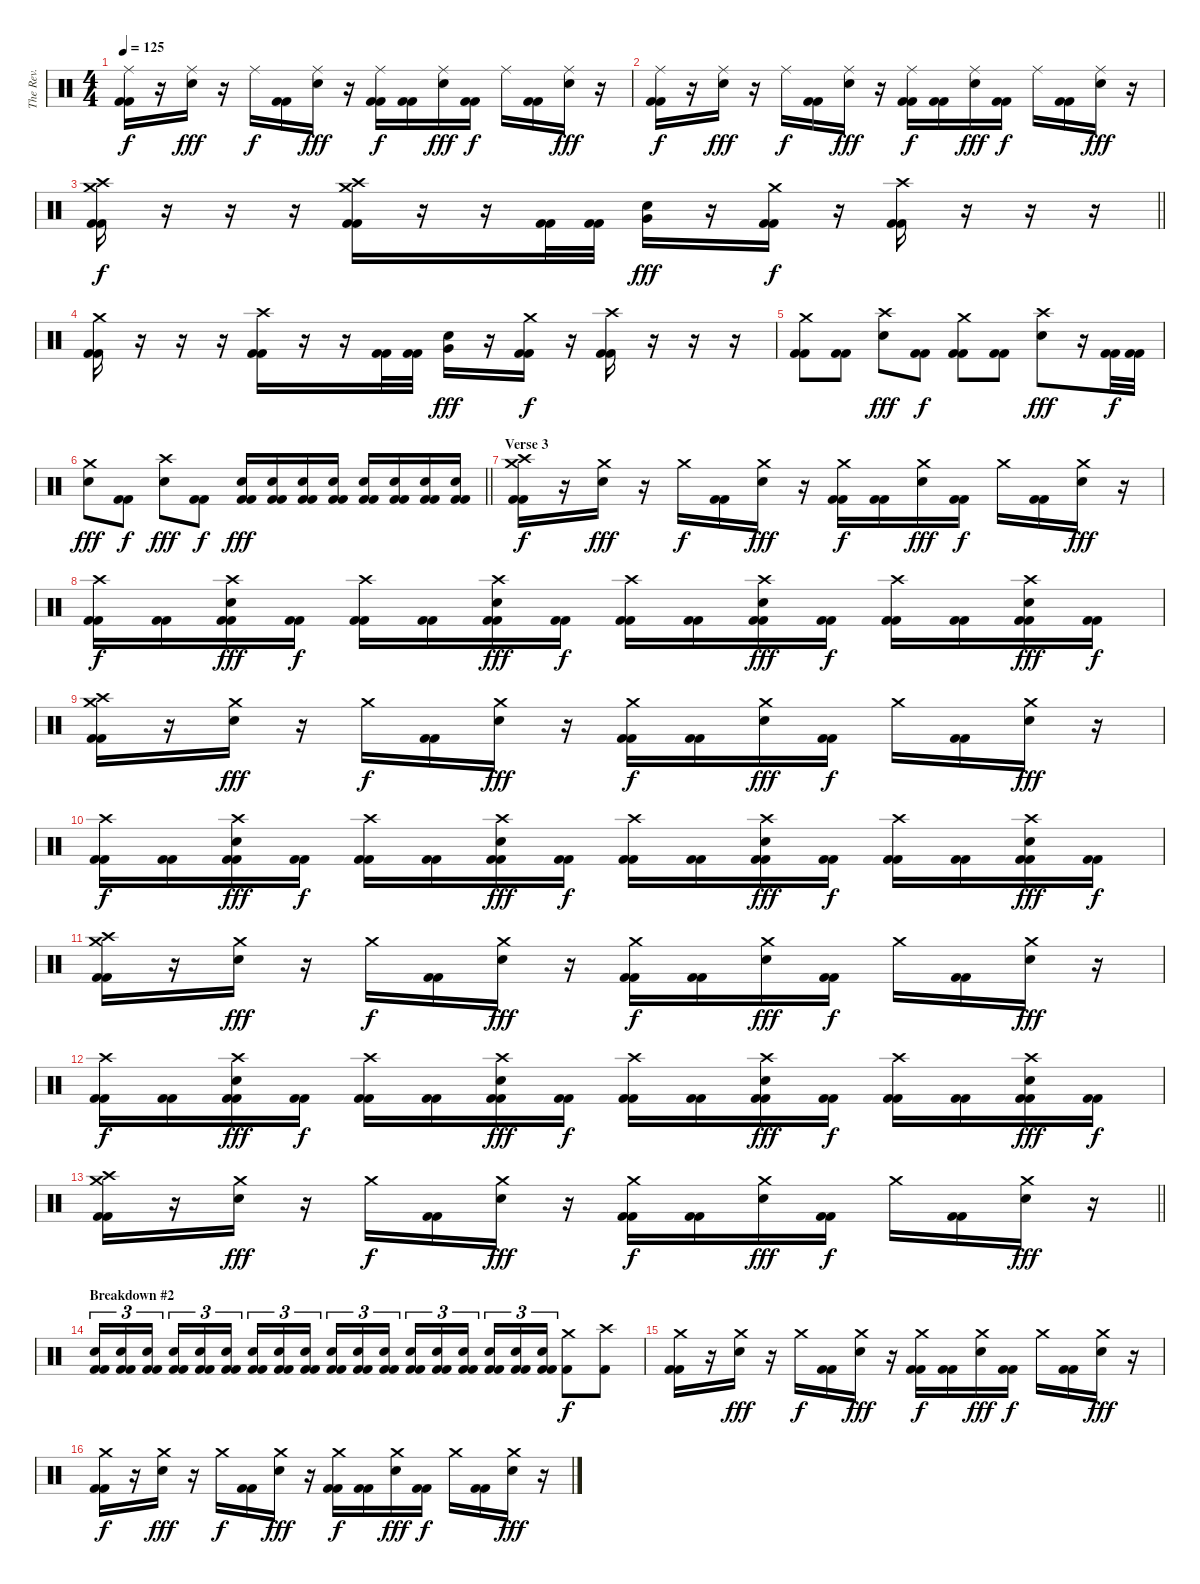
\track ("The Rev." "The Rev.") {instrument percussion}
\staff {score}
\articulation defaults
\ts (4 4)
\tempo 125
\clef neutral
\ks c
("Ride (middle)" "Kick (hit) 2" "Kick (hit) 2").16{dy f} r.16 ("Ride (middle)" "Electric Snare (hit)").16{dy fff} r.16 "Ride (middle)".16{dy f} ("Kick (hit) 2" "Kick (hit) 2").16 ("Ride (middle)" "Electric Snare (hit)").16{dy fff} r.16 ("Ride (middle)" "Kick (hit) 2" "Kick (hit) 2").16{dy f} ("Kick (hit) 2" "Kick (hit) 2").16 ("Ride (middle)" "Electric Snare (hit)").16{dy fff} ("Kick (hit) 2" "Kick (hit) 2").16{dy f} "Ride (middle)".16 ("Kick (hit) 2" "Kick (hit) 2").16 ("Ride (middle)" "Electric Snare (hit)").16{dy fff} r.16 |
("Ride (middle)" "Kick (hit) 2" "Kick (hit) 2").16{dy f} r.16 ("Ride (middle)" "Electric Snare (hit)").16{dy fff} r.16 "Ride (middle)".16{dy f} ("Kick (hit) 2" "Kick (hit) 2").16 ("Ride (middle)" "Electric Snare (hit)").16{dy fff} r.16 ("Ride (middle)" "Kick (hit) 2" "Kick (hit) 2").16{dy f} ("Kick (hit) 2" "Kick (hit) 2").16 ("Ride (middle)" "Electric Snare (hit)").16{dy fff} ("Kick (hit) 2" "Kick (hit) 2").16{dy f} "Ride (middle)".16 ("Kick (hit) 2" "Kick (hit) 2").16 ("Ride (middle)" "Electric Snare (hit)").16{dy fff} r.16 |
\barLineRight lightlight
("Crash high (hit)" "Crash medium (hit)" "Kick (hit) 2" "Kick (hit) 2").16{dy f} r.16 r.16 r.16 ("Crash high (hit)" "Crash medium (hit)" "Kick (hit) 2" "Kick (hit) 2").16 r.16 r.16 ("Kick (hit) 2" "Kick (hit) 2").32 ("Kick (hit) 2" "Kick (hit) 2").32 ("Electric Snare (hit)" "Very Low Tom (hit)").16{dy fff} r.16 ("Crash medium (hit)" "Kick (hit) 2" "Kick (hit) 2").16{dy f} r.16 ("Crash high (hit)" "Kick (hit) 2" "Kick (hit) 2").16 r.16 r.16 r.16 |
("Crash medium (hit)" "Kick (hit) 2" "Kick (hit) 2").16 r.16 r.16 r.16 ("Crash high (hit)" "Kick (hit) 2" "Kick (hit) 2").16 r.16 r.16 ("Kick (hit) 2" "Kick (hit) 2").32 ("Kick (hit) 2" "Kick (hit) 2").32 ("Electric Snare (hit)" "Very Low Tom (hit)").16{dy fff} r.16 ("Crash medium (hit)" "Kick (hit) 2" "Kick (hit) 2").16{dy f} r.16 ("Crash high (hit)" "Kick (hit) 2" "Kick (hit) 2").16 r.16 r.16 r.16 |
("Crash medium (hit)" "Kick (hit) 2" "Kick (hit) 2").8 ("Kick (hit) 2" "Kick (hit) 2").8 ("Crash high (hit)" "Electric Snare (hit)").8{dy fff} ("Kick (hit) 2" "Kick (hit) 2").8{dy f} ("Crash medium (hit)" "Kick (hit) 2" "Kick (hit) 2").8 ("Kick (hit) 2" "Kick (hit) 2").8 ("Crash high (hit)" "Electric Snare (hit)").8{dy fff} r.16 ("Kick (hit) 2" "Kick (hit) 2").32{dy f} ("Kick (hit) 2" "Kick (hit) 2").32 |
\barLineRight lightlight
("Crash medium (hit)" "Electric Snare (hit)").8{dy fff} ("Kick (hit) 2" "Kick (hit) 2").8{dy f} ("Crash high (hit)" "Electric Snare (hit)").8{dy fff} ("Kick (hit) 2" "Kick (hit) 2").8{dy f} ("Electric Snare (hit)" "Kick (hit) 2" "Kick (hit) 2").16{dy fff} ("Electric Snare (hit)" "Kick (hit) 2" "Kick (hit) 2").16 ("Electric Snare (hit)" "Kick (hit) 2" "Kick (hit) 2").16 ("Electric Snare (hit)" "Kick (hit) 2" "Kick (hit) 2").16 ("Electric Snare (hit)" "Kick (hit) 2" "Kick (hit) 2").16 ("Electric Snare (hit)" "Kick (hit) 2" "Kick (hit) 2").16 ("Electric Snare (hit)" "Kick (hit) 2" "Kick (hit) 2").16 ("Electric Snare (hit)" "Kick (hit) 2" "Kick (hit) 2").16 |
\section ("" "Verse 3")
("Crash high (hit)" "Crash medium (hit)" "Kick (hit) 2" "Kick (hit) 2").16{dy f} r.16 ("Crash medium (hit)" "Electric Snare (hit)").16{dy fff} r.16 "Crash medium (hit)".16{dy f} ("Kick (hit) 2" "Kick (hit) 2").16 ("Crash medium (hit)" "Electric Snare (hit)").16{dy fff} r.16 ("Crash medium (hit)" "Kick (hit) 2" "Kick (hit) 2").16{dy f} ("Kick (hit) 2" "Kick (hit) 2").16 ("Crash medium (hit)" "Electric Snare (hit)").16{dy fff} ("Kick (hit) 2" "Kick (hit) 2").16{dy f} "Crash medium (hit)".16 ("Kick (hit) 2" "Kick (hit) 2").16 ("Crash medium (hit)" "Electric Snare (hit)").16{dy fff} r.16 |
("Crash high (hit)" "Kick (hit) 2" "Kick (hit) 2").16{dy f} ("Kick (hit) 2" "Kick (hit) 2").16 ("Crash high (hit)" "Electric Snare (hit)" "Kick (hit) 2" "Kick (hit) 2").16{dy fff} ("Kick (hit) 2" "Kick (hit) 2").16{dy f} ("Crash high (hit)" "Kick (hit) 2" "Kick (hit) 2").16 ("Kick (hit) 2" "Kick (hit) 2").16 ("Crash high (hit)" "Electric Snare (hit)" "Kick (hit) 2" "Kick (hit) 2").16{dy fff} ("Kick (hit) 2" "Kick (hit) 2").16{dy f} ("Crash high (hit)" "Kick (hit) 2" "Kick (hit) 2").16 ("Kick (hit) 2" "Kick (hit) 2").16 ("Crash high (hit)" "Electric Snare (hit)" "Kick (hit) 2" "Kick (hit) 2").16{dy fff} ("Kick (hit) 2" "Kick (hit) 2").16{dy f} ("Crash high (hit)" "Kick (hit) 2" "Kick (hit) 2").16 ("Kick (hit) 2" "Kick (hit) 2").16 ("Crash high (hit)" "Electric Snare (hit)" "Kick (hit) 2" "Kick (hit) 2").16{dy fff} ("Kick (hit) 2" "Kick (hit) 2").16{dy f} |
("Crash high (hit)" "Crash medium (hit)" "Kick (hit) 2" "Kick (hit) 2").16 r.16 ("Crash medium (hit)" "Electric Snare (hit)").16{dy fff} r.16 "Crash medium (hit)".16{dy f} ("Kick (hit) 2" "Kick (hit) 2").16 ("Crash medium (hit)" "Electric Snare (hit)").16{dy fff} r.16 ("Crash medium (hit)" "Kick (hit) 2" "Kick (hit) 2").16{dy f} ("Kick (hit) 2" "Kick (hit) 2").16 ("Crash medium (hit)" "Electric Snare (hit)").16{dy fff} ("Kick (hit) 2" "Kick (hit) 2").16{dy f} "Crash medium (hit)".16 ("Kick (hit) 2" "Kick (hit) 2").16 ("Crash medium (hit)" "Electric Snare (hit)").16{dy fff} r.16 |
("Crash high (hit)" "Kick (hit) 2" "Kick (hit) 2").16{dy f} ("Kick (hit) 2" "Kick (hit) 2").16 ("Crash high (hit)" "Electric Snare (hit)" "Kick (hit) 2" "Kick (hit) 2").16{dy fff} ("Kick (hit) 2" "Kick (hit) 2").16{dy f} ("Crash high (hit)" "Kick (hit) 2" "Kick (hit) 2").16 ("Kick (hit) 2" "Kick (hit) 2").16 ("Crash high (hit)" "Electric Snare (hit)" "Kick (hit) 2" "Kick (hit) 2").16{dy fff} ("Kick (hit) 2" "Kick (hit) 2").16{dy f} ("Crash high (hit)" "Kick (hit) 2" "Kick (hit) 2").16 ("Kick (hit) 2" "Kick (hit) 2").16 ("Crash high (hit)" "Electric Snare (hit)" "Kick (hit) 2" "Kick (hit) 2").16{dy fff} ("Kick (hit) 2" "Kick (hit) 2").16{dy f} ("Crash high (hit)" "Kick (hit) 2" "Kick (hit) 2").16 ("Kick (hit) 2" "Kick (hit) 2").16 ("Crash high (hit)" "Electric Snare (hit)" "Kick (hit) 2" "Kick (hit) 2").16{dy fff} ("Kick (hit) 2" "Kick (hit) 2").16{dy f} |
("Crash high (hit)" "Crash medium (hit)" "Kick (hit) 2" "Kick (hit) 2").16 r.16 ("Crash medium (hit)" "Electric Snare (hit)").16{dy fff} r.16 "Crash medium (hit)".16{dy f} ("Kick (hit) 2" "Kick (hit) 2").16 ("Crash medium (hit)" "Electric Snare (hit)").16{dy fff} r.16 ("Crash medium (hit)" "Kick (hit) 2" "Kick (hit) 2").16{dy f} ("Kick (hit) 2" "Kick (hit) 2").16 ("Crash medium (hit)" "Electric Snare (hit)").16{dy fff} ("Kick (hit) 2" "Kick (hit) 2").16{dy f} "Crash medium (hit)".16 ("Kick (hit) 2" "Kick (hit) 2").16 ("Crash medium (hit)" "Electric Snare (hit)").16{dy fff} r.16 |
("Crash high (hit)" "Kick (hit) 2" "Kick (hit) 2").16{dy f} ("Kick (hit) 2" "Kick (hit) 2").16 ("Crash high (hit)" "Electric Snare (hit)" "Kick (hit) 2" "Kick (hit) 2").16{dy fff} ("Kick (hit) 2" "Kick (hit) 2").16{dy f} ("Crash high (hit)" "Kick (hit) 2" "Kick (hit) 2").16 ("Kick (hit) 2" "Kick (hit) 2").16 ("Crash high (hit)" "Electric Snare (hit)" "Kick (hit) 2" "Kick (hit) 2").16{dy fff} ("Kick (hit) 2" "Kick (hit) 2").16{dy f} ("Crash high (hit)" "Kick (hit) 2" "Kick (hit) 2").16 ("Kick (hit) 2" "Kick (hit) 2").16 ("Crash high (hit)" "Electric Snare (hit)" "Kick (hit) 2" "Kick (hit) 2").16{dy fff} ("Kick (hit) 2" "Kick (hit) 2").16{dy f} ("Crash high (hit)" "Kick (hit) 2" "Kick (hit) 2").16 ("Kick (hit) 2" "Kick (hit) 2").16 ("Crash high (hit)" "Electric Snare (hit)" "Kick (hit) 2" "Kick (hit) 2").16{dy fff} ("Kick (hit) 2" "Kick (hit) 2").16{dy f} |
\barLineRight lightlight
("Crash high (hit)" "Crash medium (hit)" "Kick (hit) 2" "Kick (hit) 2").16 r.16 ("Crash medium (hit)" "Electric Snare (hit)").16{dy fff} r.16 "Crash medium (hit)".16{dy f} ("Kick (hit) 2" "Kick (hit) 2").16 ("Crash medium (hit)" "Electric Snare (hit)").16{dy fff} r.16 ("Crash medium (hit)" "Kick (hit) 2" "Kick (hit) 2").16{dy f} ("Kick (hit) 2" "Kick (hit) 2").16 ("Crash medium (hit)" "Electric Snare (hit)").16{dy fff} ("Kick (hit) 2" "Kick (hit) 2").16{dy f} "Crash medium (hit)".16 ("Kick (hit) 2" "Kick (hit) 2").16 ("Crash medium (hit)" "Electric Snare (hit)").16{dy fff} r.16 |
\section ("" "Breakdown #2")
("Electric Snare (hit)" "Kick (hit) 2" "Kick (hit) 2").16{tu (3 2)} ("Electric Snare (hit)" "Kick (hit) 2" "Kick (hit) 2").16{tu (3 2)} ("Electric Snare (hit)" "Kick (hit) 2" "Kick (hit) 2").16{tu (3 2) beam splitsecondary} ("Electric Snare (hit)" "Kick (hit) 2" "Kick (hit) 2").16{tu (3 2)} ("Electric Snare (hit)" "Kick (hit) 2" "Kick (hit) 2").16{tu (3 2)} ("Electric Snare (hit)" "Kick (hit) 2" "Kick (hit) 2").16{tu (3 2)} ("Electric Snare (hit)" "Kick (hit) 2" "Kick (hit) 2").16{tu (3 2)} ("Electric Snare (hit)" "Kick (hit) 2" "Kick (hit) 2").16{tu (3 2)} ("Electric Snare (hit)" "Kick (hit) 2" "Kick (hit) 2").16{tu (3 2) beam splitsecondary} ("Electric Snare (hit)" "Kick (hit) 2" "Kick (hit) 2").16{tu (3 2)} ("Electric Snare (hit)" "Kick (hit) 2" "Kick (hit) 2").16{tu (3 2)} ("Electric Snare (hit)" "Kick (hit) 2" "Kick (hit) 2").16{tu (3 2)} ("Electric Snare (hit)" "Kick (hit) 2" "Kick (hit) 2").16{tu (3 2)} ("Electric Snare (hit)" "Kick (hit) 2" "Kick (hit) 2").16{tu (3 2)} ("Electric Snare (hit)" "Kick (hit) 2" "Kick (hit) 2").16{tu (3 2) beam splitsecondary} ("Electric Snare (hit)" "Kick (hit) 2" "Kick (hit) 2").16{tu (3 2)} ("Electric Snare (hit)" "Kick (hit) 2" "Kick (hit) 2").16{tu (3 2)} ("Electric Snare (hit)" "Kick (hit) 2" "Kick (hit) 2").16{tu (3 2)} ("Crash medium (hit)" "Kick (hit) 2").8{dy f} ("Crash high (hit)" "Kick (hit) 2").8 |
("Crash medium (hit)" "Kick (hit) 2" "Kick (hit) 2").16 r.16 ("Crash medium (hit)" "Electric Snare (hit)").16{dy fff} r.16 "Crash medium (hit)".16{dy f} ("Kick (hit) 2" "Kick (hit) 2").16 ("Crash medium (hit)" "Electric Snare (hit)").16{dy fff} r.16 ("Crash medium (hit)" "Kick (hit) 2" "Kick (hit) 2").16{dy f} ("Kick (hit) 2" "Kick (hit) 2").16 ("Crash medium (hit)" "Electric Snare (hit)").16{dy fff} ("Kick (hit) 2" "Kick (hit) 2").16{dy f} "Crash medium (hit)".16 ("Kick (hit) 2" "Kick (hit) 2").16 ("Crash medium (hit)" "Electric Snare (hit)").16{dy fff} r.16 |
("Crash medium (hit)" "Kick (hit) 2" "Kick (hit) 2").16{dy f} r.16 ("Crash medium (hit)" "Electric Snare (hit)").16{dy fff} r.16 "Crash medium (hit)".16{dy f} ("Kick (hit) 2" "Kick (hit) 2").16 ("Crash medium (hit)" "Electric Snare (hit)").16{dy fff} r.16 ("Crash medium (hit)" "Kick (hit) 2" "Kick (hit) 2").16{dy f} ("Kick (hit) 2" "Kick (hit) 2").16 ("Crash medium (hit)" "Electric Snare (hit)").16{dy fff} ("Kick (hit) 2" "Kick (hit) 2").16{dy f} "Crash medium (hit)".16 ("Kick (hit) 2" "Kick (hit) 2").16 ("Crash medium (hit)" "Electric Snare (hit)").16{dy fff} r.16
